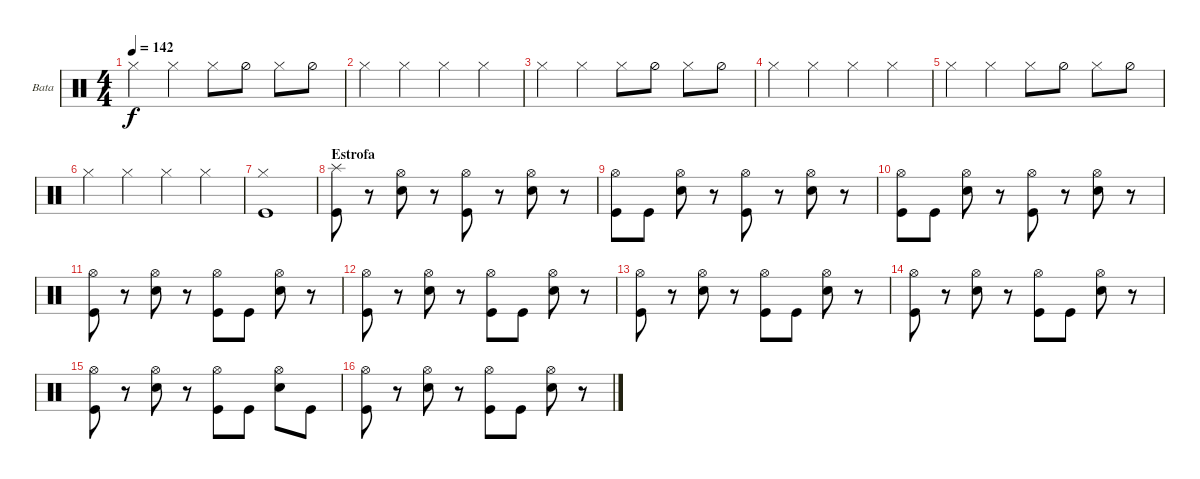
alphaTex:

\bracketExtendMode groupsimilarinstruments
\firstSystemTrackNameOrientation horizontal
\otherSystemsTrackNameOrientation horizontal
\track ("Bateria" "Bata") {instrument percussion}
\staff {score}
\articulation defaults
\ts (4 4)
\tempo 142
\clef neutral
\ks c "Hi-Hat (closed)".4{dy f} "Hi-Hat (closed)".4 "Hi-Hat (closed)".8 "Hi-Hat (half)".8 "Hi-Hat (closed)".8 "Hi-Hat (half)".8
|
"Hi-Hat (closed)".4 "Hi-Hat (closed)".4 "Hi-Hat (closed)".4 "Hi-Hat (closed)".4 |
"Hi-Hat (closed)".4 "Hi-Hat (closed)".4 "Hi-Hat (closed)".8 "Hi-Hat (half)".8 "Hi-Hat (closed)".8 "Hi-Hat (half)".8 |
"Hi-Hat (closed)".4 "Hi-Hat (closed)".4 "Hi-Hat (closed)".4 "Hi-Hat (closed)".4 |
"Hi-Hat (closed)".4 "Hi-Hat (closed)".4 "Hi-Hat (closed)".8 "Hi-Hat (half)".8 "Hi-Hat (closed)".8 "Hi-Hat (half)".8 |
"Hi-Hat (closed)".4 "Hi-Hat (closed)".4 "Hi-Hat (closed)".4 "Hi-Hat (closed)".4 |
("Hi-Hat (closed)" "Kick (hit)").1 |
\section ("" "Estrofa")
("Kick (hit)" "Splash (hit)").8 r.8 ("Hi-Hat (open)" "Snare (hit) 2").8 r.8 ("Hi-Hat (open)" "Kick (hit)").8 r.8 ("Hi-Hat (open)" "Snare (hit) 2").8 r.8 |
("Hi-Hat (open)" "Kick (hit)").8 "Kick (hit)".8 ("Hi-Hat (open)" "Snare (hit) 2").8 r.8 ("Hi-Hat (open)" "Kick (hit)").8 r.8 ("Hi-Hat (open)" "Snare (hit) 2").8 r.8 |
("Hi-Hat (open)" "Kick (hit)").8 "Kick (hit)".8 ("Hi-Hat (open)" "Snare (hit) 2").8 r.8 ("Hi-Hat (open)" "Kick (hit)").8 r.8 ("Hi-Hat (open)" "Snare (hit) 2").8 r.8 |
("Hi-Hat (open)" "Kick (hit)").8 r.8 ("Hi-Hat (open)" "Snare (hit) 2").8 r.8 ("Hi-Hat (open)" "Kick (hit)").8 "Kick (hit)".8 ("Hi-Hat (open)" "Snare (hit) 2").8 r.8 |
("Kick (hit)" "Hi-Hat (open)").8 r.8 ("Hi-Hat (open)" "Snare (hit) 2").8 r.8 ("Hi-Hat (open)" "Kick (hit)").8 "Kick (hit)".8 ("Hi-Hat (open)" "Snare (hit) 2").8 r.8 |
("Kick (hit)" "Hi-Hat (open)").8 r.8 ("Hi-Hat (open)" "Snare (hit) 2").8 r.8 ("Hi-Hat (open)" "Kick (hit)").8 "Kick (hit)".8 ("Hi-Hat (open)" "Snare (hit) 2").8 r.8 |
("Kick (hit)" "Hi-Hat (open)").8 r.8 ("Hi-Hat (open)" "Snare (hit) 2").8 r.8 ("Hi-Hat (open)" "Kick (hit)").8 "Kick (hit)".8 ("Hi-Hat (open)" "Snare (hit) 2").8 r.8 |
("Kick (hit)" "Hi-Hat (open)").8 r.8 ("Hi-Hat (open)" "Snare (hit) 2").8 r.8 ("Hi-Hat (open)" "Kick (hit)").8 "Kick (hit)".8 ("Hi-Hat (open)" "Snare (hit) 2").8 "Kick (hit)".8 |
("Kick (hit)" "Hi-Hat (open)").8 r.8 ("Hi-Hat (open)" "Snare (hit) 2").8 r.8 ("Hi-Hat (open)" "Kick (hit)").8 "Kick (hit)".8 ("Hi-Hat (open)" "Snare (hit) 2").8 r.8
